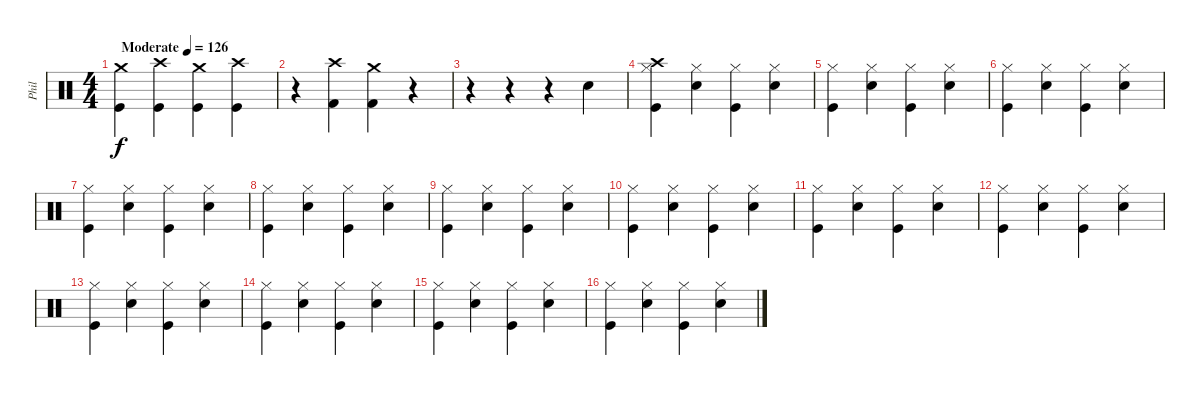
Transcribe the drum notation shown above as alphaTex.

\track ("Phil" "Phil") {instrument percussion}
\staff {score}
\articulation defaults
\ts (4 4)
\tempo (126 "Moderate")
\clef neutral
\ks c
("Crash medium (hit)" "Kick (hit)").4{dy f} ("Crash high (hit)" "Kick (hit)").4 ("Crash medium (hit)" "Kick (hit)").4 ("Crash high (hit)" "Kick (hit)").4 |
r.4 ("Crash high (hit)" "Kick (hit) 2").4 ("Crash medium (hit)" "Kick (hit) 2").4 r.4 |
r.4 r.4 r.4 "Snare (hit) 2".4 |
("Hi-Hat (closed)" "Crash high (hit)" "Kick (hit)").4 ("Hi-Hat (closed)" "Snare (hit) 2").4 ("Hi-Hat (closed)" "Kick (hit)").4 ("Hi-Hat (closed)" "Snare (hit) 2").4 |
("Hi-Hat (closed)" "Kick (hit)").4 ("Hi-Hat (closed)" "Snare (hit) 2").4 ("Hi-Hat (closed)" "Kick (hit)").4 ("Hi-Hat (closed)" "Snare (hit) 2").4 |
("Hi-Hat (closed)" "Kick (hit)").4 ("Hi-Hat (closed)" "Snare (hit) 2").4 ("Hi-Hat (closed)" "Kick (hit)").4 ("Hi-Hat (closed)" "Snare (hit) 2").4 |
("Hi-Hat (closed)" "Kick (hit)").4 ("Hi-Hat (closed)" "Snare (hit) 2").4 ("Hi-Hat (closed)" "Kick (hit)").4 ("Hi-Hat (closed)" "Snare (hit) 2").4 |
("Hi-Hat (closed)" "Kick (hit)").4 ("Hi-Hat (closed)" "Snare (hit) 2").4 ("Hi-Hat (closed)" "Kick (hit)").4 ("Hi-Hat (closed)" "Snare (hit) 2").4 |
("Hi-Hat (closed)" "Kick (hit)").4 ("Hi-Hat (closed)" "Snare (hit) 2").4 ("Hi-Hat (closed)" "Kick (hit)").4 ("Hi-Hat (closed)" "Snare (hit) 2").4 |
("Hi-Hat (closed)" "Kick (hit)").4 ("Hi-Hat (closed)" "Snare (hit) 2").4 ("Hi-Hat (closed)" "Kick (hit)").4 ("Hi-Hat (closed)" "Snare (hit) 2").4 |
("Hi-Hat (closed)" "Kick (hit)").4 ("Hi-Hat (closed)" "Snare (hit) 2").4 ("Hi-Hat (closed)" "Kick (hit)").4 ("Hi-Hat (closed)" "Snare (hit) 2").4 |
("Hi-Hat (closed)" "Kick (hit)").4 ("Hi-Hat (closed)" "Snare (hit) 2").4 ("Hi-Hat (closed)" "Kick (hit)").4 ("Hi-Hat (closed)" "Snare (hit) 2").4 |
("Hi-Hat (closed)" "Kick (hit)").4 ("Hi-Hat (closed)" "Snare (hit) 2").4 ("Hi-Hat (closed)" "Kick (hit)").4 ("Hi-Hat (closed)" "Snare (hit) 2").4 |
("Hi-Hat (closed)" "Kick (hit)").4 ("Hi-Hat (closed)" "Snare (hit) 2").4 ("Hi-Hat (closed)" "Kick (hit)").4 ("Hi-Hat (closed)" "Snare (hit) 2").4 |
("Hi-Hat (closed)" "Kick (hit)").4 ("Hi-Hat (closed)" "Snare (hit) 2").4 ("Hi-Hat (closed)" "Kick (hit)").4 ("Hi-Hat (closed)" "Snare (hit) 2").4 |
("Hi-Hat (closed)" "Kick (hit)").4 ("Hi-Hat (closed)" "Snare (hit) 2").4 ("Hi-Hat (closed)" "Kick (hit)").4 ("Hi-Hat (closed)" "Snare (hit) 2").4
